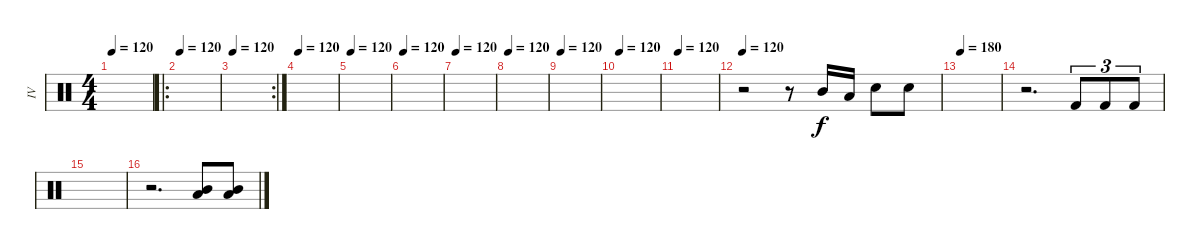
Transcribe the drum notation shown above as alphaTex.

\track ("IV" "IV") {instrument percussion}
\staff {score}
\articulation defaults
\ts (4 4)
\tempo 120
\clef neutral
\ks c
|
\ro
\tempo 120
|
\rc 2
\tempo 120
|
\tempo 120
|
\tempo 120
|
\tempo 120
|
\tempo 120
|
\tempo 120
|
\tempo 120
|
\tempo 120
|
\tempo 120
|
\tempo 120
r.2 r.8 "Mid Tom (hit)".16 "Low Tom (hit)".16 "Snare (hit) 2".8 "Snare (hit) 2".8 |
\tempo 180
|
r.2{d} "Kick (hit) 2".8{tu (3 2)} "Kick (hit) 2".8{tu (3 2)} "Kick (hit) 2".8{tu (3 2)} |
|
r.2{d} ("Mid Tom (hit)" "Low Tom (hit)").8 ("Mid Tom (hit)" "Low Tom (hit)").8
